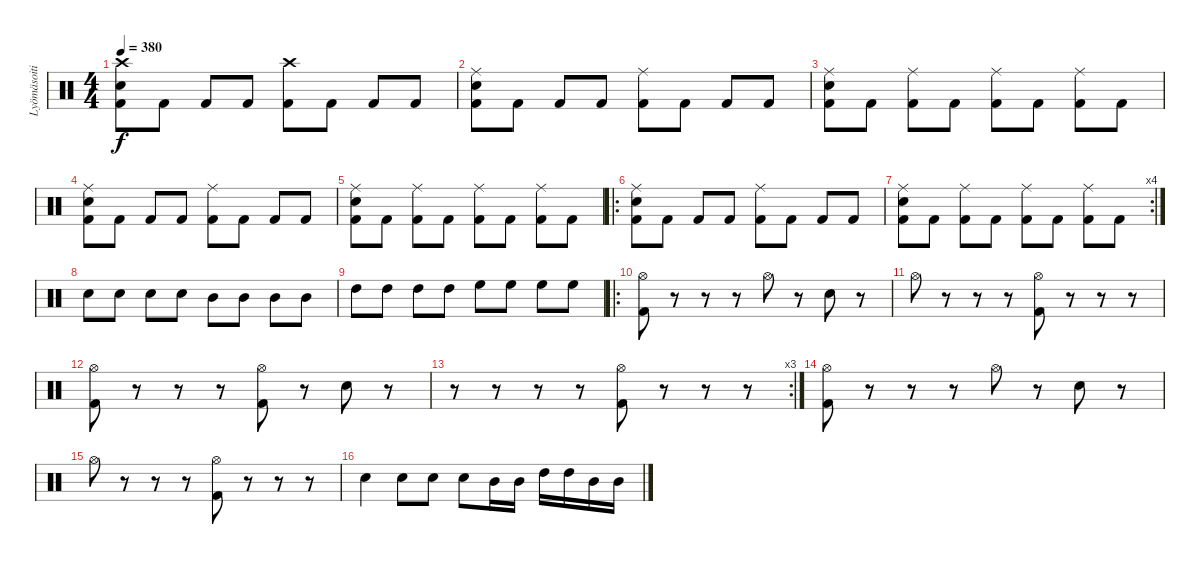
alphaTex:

\track ("Lyömäsoitin" "Lyömäsoiti") {instrument percussion}
\staff {score}
\articulation defaults
\ts (4 4)
\tempo 380
\clef neutral
\ks c
("Crash high (hit)" "Electric Snare (hit)" "Kick (hit) 2").8{dy f} "Kick (hit) 2".8 "Kick (hit) 2".8 "Kick (hit) 2".8 ("Crash high (hit)" "Kick (hit) 2").8 "Kick (hit) 2".8 "Kick (hit) 2".8 "Kick (hit) 2".8 |
("Ride (middle)" "Electric Snare (hit)" "Kick (hit) 2").8 "Kick (hit) 2".8 "Kick (hit) 2".8 "Kick (hit) 2".8 ("Ride (middle)" "Kick (hit) 2").8 "Kick (hit) 2".8 "Kick (hit) 2".8 "Kick (hit) 2".8 |
("Ride (middle)" "Electric Snare (hit)" "Kick (hit) 2").8 "Kick (hit) 2".8 ("Ride (middle)" "Kick (hit) 2").8 "Kick (hit) 2".8 ("Ride (middle)" "Kick (hit) 2").8 "Kick (hit) 2".8 ("Ride (middle)" "Kick (hit) 2").8 "Kick (hit) 2".8 |
("Ride (middle)" "Electric Snare (hit)" "Kick (hit) 2").8 "Kick (hit) 2".8 "Kick (hit) 2".8 "Kick (hit) 2".8 ("Ride (middle)" "Kick (hit) 2").8 "Kick (hit) 2".8 "Kick (hit) 2".8 "Kick (hit) 2".8 |
("Ride (middle)" "Electric Snare (hit)" "Kick (hit) 2").8 "Kick (hit) 2".8 ("Ride (middle)" "Kick (hit) 2").8 "Kick (hit) 2".8 ("Ride (middle)" "Kick (hit) 2").8 "Kick (hit) 2".8 ("Ride (middle)" "Kick (hit) 2").8 "Kick (hit) 2".8 |
\ro
("Ride (middle)" "Electric Snare (hit)" "Kick (hit) 2").8 "Kick (hit) 2".8 "Kick (hit) 2".8 "Kick (hit) 2".8 ("Ride (middle)" "Kick (hit) 2").8 "Kick (hit) 2".8 "Kick (hit) 2".8 "Kick (hit) 2".8 |
\rc 4
("Ride (middle)" "Electric Snare (hit)" "Kick (hit) 2").8 "Kick (hit) 2".8 ("Ride (middle)" "Kick (hit) 2").8 "Kick (hit) 2".8 ("Ride (middle)" "Kick (hit) 2").8 "Kick (hit) 2".8 ("Ride (middle)" "Kick (hit) 2").8 "Kick (hit) 2".8 |
"Electric Snare (hit)".8 "Electric Snare (hit)".8 "Electric Snare (hit)".8 "Electric Snare (hit)".8 "Mid Tom (hit)".8 "Mid Tom (hit)".8 "Mid Tom (hit)".8 "Mid Tom (hit)".8 |
"High Tom (hit)".8 "High Tom (hit)".8 "High Tom (hit)".8 "High Tom (hit)".8 "High Floor Tom (hit)".8 "High Floor Tom (hit)".8 "High Floor Tom (hit)".8 "High Floor Tom (hit)".8 |
\ro
("Hi-Hat (open)" "Kick (hit) 2").8 r.8 r.8 r.8 "Hi-Hat (open)".8 r.8 "Electric Snare (hit)".8 r.8 |
"Hi-Hat (open)".8 r.8 r.8 r.8 ("Hi-Hat (open)" "Kick (hit) 2").8 r.8 r.8 r.8 |
("Hi-Hat (open)" "Kick (hit) 2").8 r.8 r.8 r.8 ("Hi-Hat (open)" "Kick (hit) 2").8 r.8 "Electric Snare (hit)".8 r.8 |
\rc 3
r.8 r.8 r.8 r.8 ("Hi-Hat (open)" "Kick (hit) 2").8 r.8 r.8 r.8 |
("Hi-Hat (open)" "Kick (hit) 2").8 r.8 r.8 r.8 "Hi-Hat (open)".8 r.8 "Electric Snare (hit)".8 r.8 |
"Hi-Hat (open)".8 r.8 r.8 r.8 ("Hi-Hat (open)" "Kick (hit) 2").8 r.8 r.8 r.8 |
"Electric Snare (hit)".4 "Electric Snare (hit)".8 "Electric Snare (hit)".8 "Electric Snare (hit)".8 "Mid Tom (hit)".16 "Mid Tom (hit)".16 "High Tom (hit)".16 "High Tom (hit)".16 "Mid Tom (hit)".16 "Mid Tom (hit)".16
